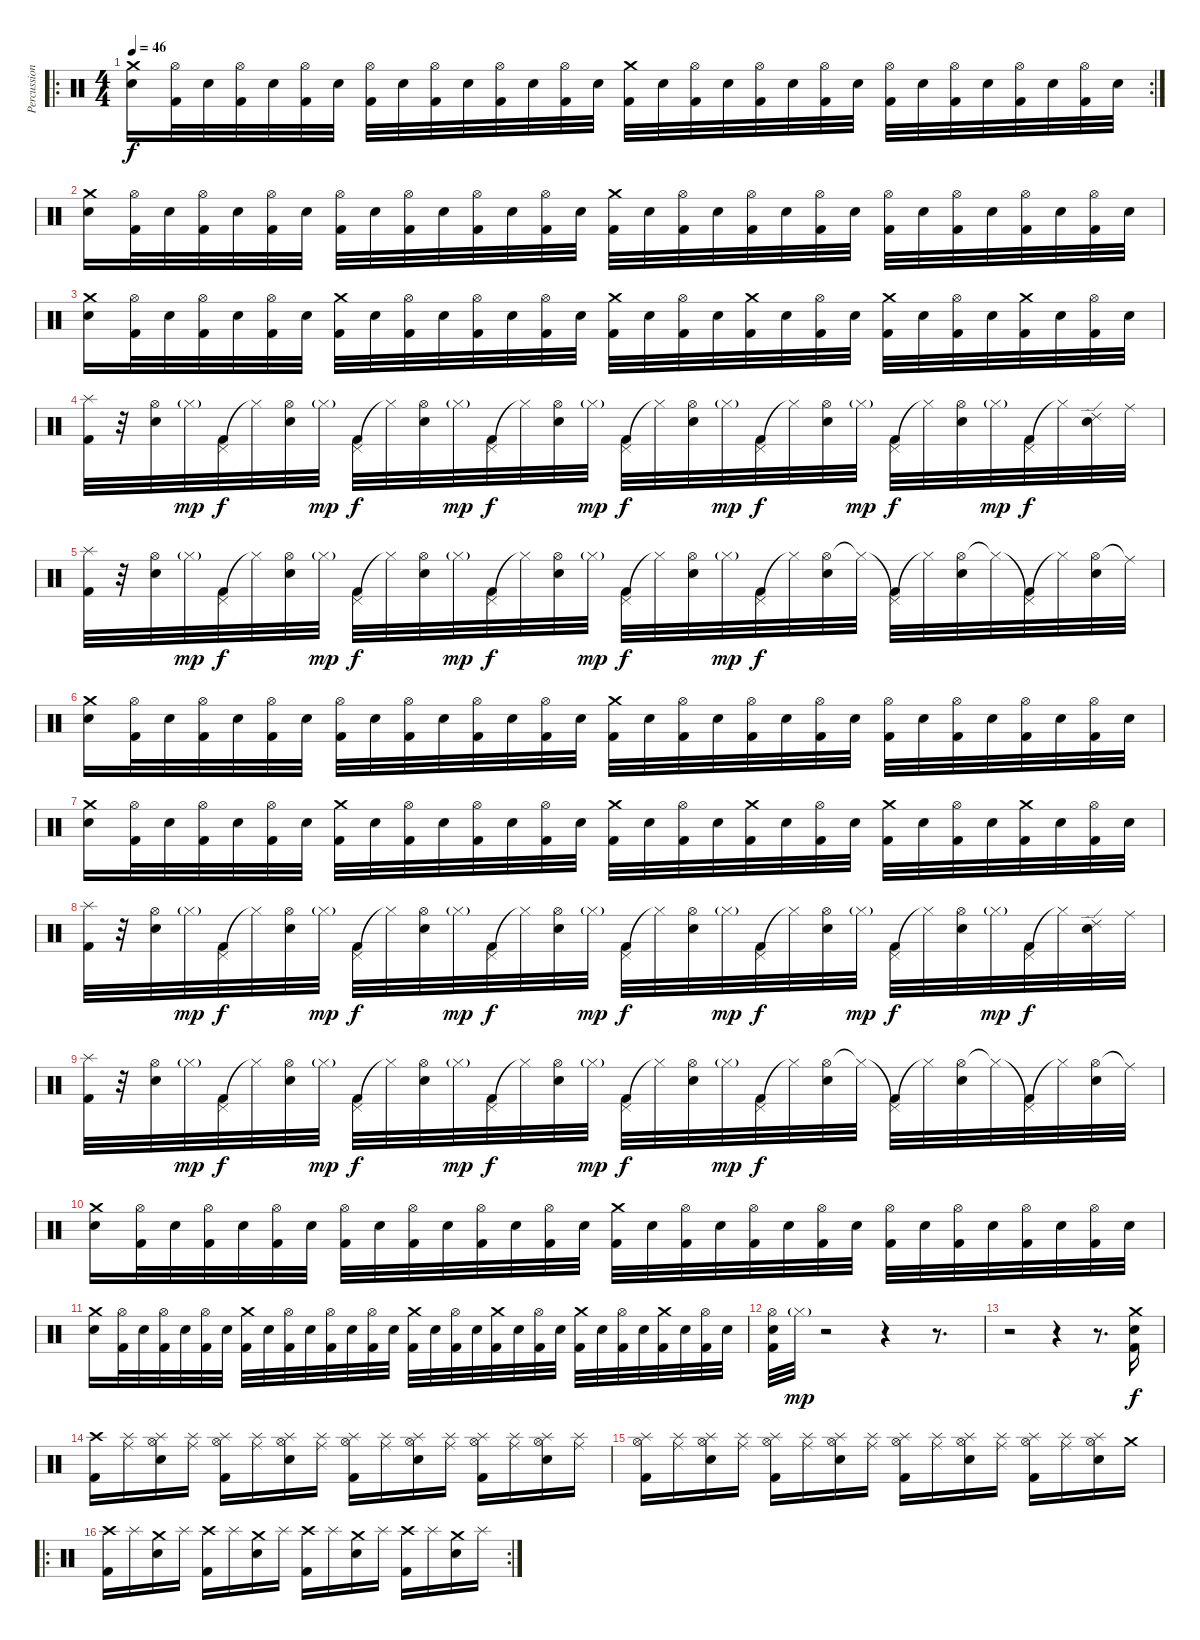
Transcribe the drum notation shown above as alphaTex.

\track ("Percussion" "Percussion") {instrument percussion}
\staff {score}
\articulation defaults
\ro
\rc 2
\ts (4 4)
\tempo 46
\clef neutral
\ks c
("Crash medium (hit)" "Electric Snare (hit)").16{dy f} ("Hi-Hat (open)" "Kick (hit) 2").32 "Electric Snare (hit)".32 ("Hi-Hat (open)" "Kick (hit) 2").32 "Electric Snare (hit)".32 ("Hi-Hat (open)" "Kick (hit) 2").32 "Electric Snare (hit)".32 ("Hi-Hat (open)" "Kick (hit) 2").32 "Electric Snare (hit)".32 ("Hi-Hat (open)" "Kick (hit) 2").32 "Electric Snare (hit)".32 ("Hi-Hat (open)" "Kick (hit) 2").32 "Electric Snare (hit)".32 ("Hi-Hat (open)" "Kick (hit) 2").32 "Electric Snare (hit)".32 ("Crash medium (hit)" "Kick (hit) 2").32 "Electric Snare (hit)".32 ("Hi-Hat (open)" "Kick (hit) 2").32 "Electric Snare (hit)".32 ("Hi-Hat (open)" "Kick (hit) 2").32 "Electric Snare (hit)".32 ("Hi-Hat (open)" "Kick (hit) 2").32 "Electric Snare (hit)".32 ("Hi-Hat (open)" "Kick (hit) 2").32 "Electric Snare (hit)".32 ("Hi-Hat (open)" "Kick (hit) 2").32 "Electric Snare (hit)".32 ("Hi-Hat (open)" "Kick (hit) 2").32 "Electric Snare (hit)".32 ("Hi-Hat (open)" "Kick (hit) 2").32 "Electric Snare (hit)".32 |
("Crash medium (hit)" "Electric Snare (hit)").16 ("Hi-Hat (open)" "Kick (hit) 2").32 "Electric Snare (hit)".32 ("Hi-Hat (open)" "Kick (hit) 2").32 "Electric Snare (hit)".32 ("Hi-Hat (open)" "Kick (hit) 2").32 "Electric Snare (hit)".32 ("Hi-Hat (open)" "Kick (hit) 2").32 "Electric Snare (hit)".32 ("Hi-Hat (open)" "Kick (hit) 2").32 "Electric Snare (hit)".32 ("Hi-Hat (open)" "Kick (hit) 2").32 "Electric Snare (hit)".32 ("Hi-Hat (open)" "Kick (hit) 2").32 "Electric Snare (hit)".32 ("Crash medium (hit)" "Kick (hit) 2").32 "Electric Snare (hit)".32 ("Hi-Hat (open)" "Kick (hit) 2").32 "Electric Snare (hit)".32 ("Hi-Hat (open)" "Kick (hit) 2").32 "Electric Snare (hit)".32 ("Hi-Hat (open)" "Kick (hit) 2").32 "Electric Snare (hit)".32 ("Hi-Hat (open)" "Kick (hit) 2").32 "Electric Snare (hit)".32 ("Hi-Hat (open)" "Kick (hit) 2").32 "Electric Snare (hit)".32 ("Hi-Hat (open)" "Kick (hit) 2").32 "Electric Snare (hit)".32 ("Hi-Hat (open)" "Kick (hit) 2").32 "Electric Snare (hit)".32 |
("Crash medium (hit)" "Electric Snare (hit)").16 ("Hi-Hat (open)" "Kick (hit) 2").32 "Electric Snare (hit)".32 ("Hi-Hat (open)" "Kick (hit) 2").32 "Electric Snare (hit)".32 ("Hi-Hat (open)" "Kick (hit) 2").32 "Electric Snare (hit)".32 ("Crash medium (hit)" "Kick (hit) 2").32 "Electric Snare (hit)".32 ("Hi-Hat (open)" "Kick (hit) 2").32 "Electric Snare (hit)".32 ("Hi-Hat (open)" "Kick (hit) 2").32 "Electric Snare (hit)".32 ("Hi-Hat (open)" "Kick (hit) 2").32 "Electric Snare (hit)".32 ("Crash medium (hit)" "Kick (hit) 2").32 "Electric Snare (hit)".32 ("Hi-Hat (open)" "Kick (hit) 2").32 "Electric Snare (hit)".32 ("Crash medium (hit)" "Kick (hit) 2").32 "Electric Snare (hit)".32 ("Hi-Hat (open)" "Kick (hit) 2").32 "Electric Snare (hit)".32 ("Crash medium (hit)" "Kick (hit) 2").32 "Electric Snare (hit)".32 ("Hi-Hat (open)" "Kick (hit) 2").32 "Electric Snare (hit)".32 ("Crash medium (hit)" "Kick (hit) 2").32 "Electric Snare (hit)".32 ("Hi-Hat (open)" "Kick (hit) 2").32 "Electric Snare (hit)".32 |
("Splash (hit)" "Kick (hit) 2").32 r.32 ("Hi-Hat (open)" "Electric Snare (hit)").32 "Hi-Hat (closed)"{g}.32{dy mp} ("Pedal Hi-Hat (hit)" "Kick (hit) 2").32{dy f} "Hi-Hat (closed)"{t}.32 ("Hi-Hat (open)" "Electric Snare (hit)").32 "Hi-Hat (closed)"{g}.32{dy mp} ("Pedal Hi-Hat (hit)" "Kick (hit) 2").32{dy f} "Hi-Hat (closed)"{t}.32 ("Hi-Hat (open)" "Electric Snare (hit)").32 "Hi-Hat (closed)"{g}.32{dy mp} ("Pedal Hi-Hat (hit)" "Kick (hit) 2").32{dy f} "Hi-Hat (closed)"{t}.32 ("Hi-Hat (open)" "Electric Snare (hit)").32 "Hi-Hat (closed)"{g}.32{dy mp} ("Pedal Hi-Hat (hit)" "Kick (hit) 2").32{dy f} "Hi-Hat (closed)"{t}.32 ("Hi-Hat (open)" "Electric Snare (hit)").32 "Hi-Hat (closed)"{g}.32{dy mp} ("Pedal Hi-Hat (hit)" "Kick (hit) 2").32{dy f} "Hi-Hat (closed)"{t}.32 ("Hi-Hat (open)" "Electric Snare (hit)").32 "Hi-Hat (closed)"{g}.32{dy mp} ("Pedal Hi-Hat (hit)" "Kick (hit) 2").32{dy f} "Hi-Hat (closed)"{t}.32 ("Hi-Hat (open)" "Electric Snare (hit)").32 "Hi-Hat (closed)"{g}.32{dy mp} ("Pedal Hi-Hat (hit)" "Kick (hit) 2").32{dy f} "Hi-Hat (closed)"{t}.32 ("Ride (edge) 2" "Electric Snare (hit)").32 "Ride (middle)".32 |
("Splash (hit)" "Kick (hit) 2").32 r.32 ("Hi-Hat (open)" "Electric Snare (hit)").32 "Hi-Hat (closed)"{g}.32{dy mp} ("Pedal Hi-Hat (hit)" "Kick (hit) 2").32{dy f} "Hi-Hat (closed)"{t}.32 ("Hi-Hat (open)" "Electric Snare (hit)").32 "Hi-Hat (closed)"{g}.32{dy mp} ("Pedal Hi-Hat (hit)" "Kick (hit) 2").32{dy f} "Hi-Hat (closed)"{t}.32 ("Hi-Hat (open)" "Electric Snare (hit)").32 "Hi-Hat (closed)"{g}.32{dy mp} ("Pedal Hi-Hat (hit)" "Kick (hit) 2").32{dy f} "Hi-Hat (closed)"{t}.32 ("Hi-Hat (open)" "Electric Snare (hit)").32 "Hi-Hat (closed)"{g}.32{dy mp} ("Pedal Hi-Hat (hit)" "Kick (hit) 2").32{dy f} "Hi-Hat (closed)"{t}.32 ("Hi-Hat (open)" "Electric Snare (hit)").32 "Hi-Hat (closed)"{g}.32{dy mp} ("Pedal Hi-Hat (hit)" "Kick (hit) 2").32{dy f} "Hi-Hat (closed)"{t}.32 ("Hi-Hat (open)" "Electric Snare (hit)").32 "Hi-Hat (closed)"{t}.32 ("Pedal Hi-Hat (hit)"{t} "Kick (hit) 2").32 "Hi-Hat (closed)"{t}.32 ("Hi-Hat (open)" "Electric Snare (hit)").32 "Hi-Hat (closed)"{t}.32 ("Pedal Hi-Hat (hit)"{t} "Kick (hit) 2").32 "Hi-Hat (closed)"{t}.32 ("Hi-Hat (open)" "Electric Snare (hit)").32 "Ride (middle)"{t}.32 |
("Crash medium (hit)" "Electric Snare (hit)").16 ("Hi-Hat (open)" "Kick (hit) 2").32 "Electric Snare (hit)".32 ("Hi-Hat (open)" "Kick (hit) 2").32 "Electric Snare (hit)".32 ("Hi-Hat (open)" "Kick (hit) 2").32 "Electric Snare (hit)".32 ("Hi-Hat (open)" "Kick (hit) 2").32 "Electric Snare (hit)".32 ("Hi-Hat (open)" "Kick (hit) 2").32 "Electric Snare (hit)".32 ("Hi-Hat (open)" "Kick (hit) 2").32 "Electric Snare (hit)".32 ("Hi-Hat (open)" "Kick (hit) 2").32 "Electric Snare (hit)".32 ("Crash medium (hit)" "Kick (hit) 2").32 "Electric Snare (hit)".32 ("Hi-Hat (open)" "Kick (hit) 2").32 "Electric Snare (hit)".32 ("Hi-Hat (open)" "Kick (hit) 2").32 "Electric Snare (hit)".32 ("Hi-Hat (open)" "Kick (hit) 2").32 "Electric Snare (hit)".32 ("Hi-Hat (open)" "Kick (hit) 2").32 "Electric Snare (hit)".32 ("Hi-Hat (open)" "Kick (hit) 2").32 "Electric Snare (hit)".32 ("Hi-Hat (open)" "Kick (hit) 2").32 "Electric Snare (hit)".32 ("Hi-Hat (open)" "Kick (hit) 2").32 "Electric Snare (hit)".32 |
("Crash medium (hit)" "Electric Snare (hit)").16 ("Hi-Hat (open)" "Kick (hit) 2").32 "Electric Snare (hit)".32 ("Hi-Hat (open)" "Kick (hit) 2").32 "Electric Snare (hit)".32 ("Hi-Hat (open)" "Kick (hit) 2").32 "Electric Snare (hit)".32 ("Crash medium (hit)" "Kick (hit) 2").32 "Electric Snare (hit)".32 ("Hi-Hat (open)" "Kick (hit) 2").32 "Electric Snare (hit)".32 ("Hi-Hat (open)" "Kick (hit) 2").32 "Electric Snare (hit)".32 ("Hi-Hat (open)" "Kick (hit) 2").32 "Electric Snare (hit)".32 ("Crash medium (hit)" "Kick (hit) 2").32 "Electric Snare (hit)".32 ("Hi-Hat (open)" "Kick (hit) 2").32 "Electric Snare (hit)".32 ("Crash medium (hit)" "Kick (hit) 2").32 "Electric Snare (hit)".32 ("Hi-Hat (open)" "Kick (hit) 2").32 "Electric Snare (hit)".32 ("Crash medium (hit)" "Kick (hit) 2").32 "Electric Snare (hit)".32 ("Hi-Hat (open)" "Kick (hit) 2").32 "Electric Snare (hit)".32 ("Crash medium (hit)" "Kick (hit) 2").32 "Electric Snare (hit)".32 ("Hi-Hat (open)" "Kick (hit) 2").32 "Electric Snare (hit)".32 |
("Splash (hit)" "Kick (hit) 2").32 r.32 ("Hi-Hat (open)" "Electric Snare (hit)").32 "Hi-Hat (closed)"{g}.32{dy mp} ("Pedal Hi-Hat (hit)" "Kick (hit) 2").32{dy f} "Hi-Hat (closed)"{t}.32 ("Hi-Hat (open)" "Electric Snare (hit)").32 "Hi-Hat (closed)"{g}.32{dy mp} ("Pedal Hi-Hat (hit)" "Kick (hit) 2").32{dy f} "Hi-Hat (closed)"{t}.32 ("Hi-Hat (open)" "Electric Snare (hit)").32 "Hi-Hat (closed)"{g}.32{dy mp} ("Pedal Hi-Hat (hit)" "Kick (hit) 2").32{dy f} "Hi-Hat (closed)"{t}.32 ("Hi-Hat (open)" "Electric Snare (hit)").32 "Hi-Hat (closed)"{g}.32{dy mp} ("Pedal Hi-Hat (hit)" "Kick (hit) 2").32{dy f} "Hi-Hat (closed)"{t}.32 ("Hi-Hat (open)" "Electric Snare (hit)").32 "Hi-Hat (closed)"{g}.32{dy mp} ("Pedal Hi-Hat (hit)" "Kick (hit) 2").32{dy f} "Hi-Hat (closed)"{t}.32 ("Hi-Hat (open)" "Electric Snare (hit)").32 "Hi-Hat (closed)"{g}.32{dy mp} ("Pedal Hi-Hat (hit)" "Kick (hit) 2").32{dy f} "Hi-Hat (closed)"{t}.32 ("Hi-Hat (open)" "Electric Snare (hit)").32 "Hi-Hat (closed)"{g}.32{dy mp} ("Pedal Hi-Hat (hit)" "Kick (hit) 2").32{dy f} "Hi-Hat (closed)"{t}.32 ("Ride (edge) 2" "Electric Snare (hit)").32 "Ride (middle)".32 |
("Splash (hit)" "Kick (hit) 2").32 r.32 ("Hi-Hat (open)" "Electric Snare (hit)").32 "Hi-Hat (closed)"{g}.32{dy mp} ("Pedal Hi-Hat (hit)" "Kick (hit) 2").32{dy f} "Hi-Hat (closed)"{t}.32 ("Hi-Hat (open)" "Electric Snare (hit)").32 "Hi-Hat (closed)"{g}.32{dy mp} ("Pedal Hi-Hat (hit)" "Kick (hit) 2").32{dy f} "Hi-Hat (closed)"{t}.32 ("Hi-Hat (open)" "Electric Snare (hit)").32 "Hi-Hat (closed)"{g}.32{dy mp} ("Pedal Hi-Hat (hit)" "Kick (hit) 2").32{dy f} "Hi-Hat (closed)"{t}.32 ("Hi-Hat (open)" "Electric Snare (hit)").32 "Hi-Hat (closed)"{g}.32{dy mp} ("Pedal Hi-Hat (hit)" "Kick (hit) 2").32{dy f} "Hi-Hat (closed)"{t}.32 ("Hi-Hat (open)" "Electric Snare (hit)").32 "Hi-Hat (closed)"{g}.32{dy mp} ("Pedal Hi-Hat (hit)" "Kick (hit) 2").32{dy f} "Hi-Hat (closed)"{t}.32 ("Hi-Hat (open)" "Electric Snare (hit)").32 "Hi-Hat (closed)"{t}.32 ("Pedal Hi-Hat (hit)"{t} "Kick (hit) 2").32 "Hi-Hat (closed)"{t}.32 ("Hi-Hat (open)" "Electric Snare (hit)").32 "Hi-Hat (closed)"{t}.32 ("Pedal Hi-Hat (hit)"{t} "Kick (hit) 2").32 "Hi-Hat (closed)"{t}.32 ("Hi-Hat (open)" "Electric Snare (hit)").32 "Ride (middle)"{t}.32 |
("Crash medium (hit)" "Electric Snare (hit)").16 ("Hi-Hat (open)" "Kick (hit) 2").32 "Electric Snare (hit)".32 ("Hi-Hat (open)" "Kick (hit) 2").32 "Electric Snare (hit)".32 ("Hi-Hat (open)" "Kick (hit) 2").32 "Electric Snare (hit)".32 ("Hi-Hat (open)" "Kick (hit) 2").32 "Electric Snare (hit)".32 ("Hi-Hat (open)" "Kick (hit) 2").32 "Electric Snare (hit)".32 ("Hi-Hat (open)" "Kick (hit) 2").32 "Electric Snare (hit)".32 ("Hi-Hat (open)" "Kick (hit) 2").32 "Electric Snare (hit)".32 ("Crash medium (hit)" "Kick (hit) 2").32 "Electric Snare (hit)".32 ("Hi-Hat (open)" "Kick (hit) 2").32 "Electric Snare (hit)".32 ("Hi-Hat (open)" "Kick (hit) 2").32 "Electric Snare (hit)".32 ("Hi-Hat (open)" "Kick (hit) 2").32 "Electric Snare (hit)".32 ("Hi-Hat (open)" "Kick (hit) 2").32 "Electric Snare (hit)".32 ("Hi-Hat (open)" "Kick (hit) 2").32 "Electric Snare (hit)".32 ("Hi-Hat (open)" "Kick (hit) 2").32 "Electric Snare (hit)".32 ("Hi-Hat (open)" "Kick (hit) 2").32 "Electric Snare (hit)".32 |
("Crash medium (hit)" "Electric Snare (hit)").16 ("Hi-Hat (open)" "Kick (hit) 2").32 "Electric Snare (hit)".32 ("Hi-Hat (open)" "Kick (hit) 2").32 "Electric Snare (hit)".32 ("Hi-Hat (open)" "Kick (hit) 2").32 "Electric Snare (hit)".32 ("Crash medium (hit)" "Kick (hit) 2").32 "Electric Snare (hit)".32 ("Hi-Hat (open)" "Kick (hit) 2").32 "Electric Snare (hit)".32 ("Hi-Hat (open)" "Kick (hit) 2").32 "Electric Snare (hit)".32 ("Hi-Hat (open)" "Kick (hit) 2").32 "Electric Snare (hit)".32 ("Crash medium (hit)" "Kick (hit) 2").32 "Electric Snare (hit)".32 ("Hi-Hat (open)" "Kick (hit) 2").32 "Electric Snare (hit)".32 ("Crash medium (hit)" "Kick (hit) 2").32 "Electric Snare (hit)".32 ("Hi-Hat (open)" "Kick (hit) 2").32 "Electric Snare (hit)".32 ("Crash medium (hit)" "Kick (hit) 2").32 "Electric Snare (hit)".32 ("Hi-Hat (open)" "Kick (hit) 2").32 "Electric Snare (hit)".32 ("Crash medium (hit)" "Kick (hit) 2").32 "Electric Snare (hit)".32 ("Hi-Hat (open)" "Kick (hit) 2").32 "Electric Snare (hit)".32 |
("Hi-Hat (open)" "Electric Snare (hit)" "Kick (hit) 2").32 "Hi-Hat (closed)"{g}.32{dy mp} r.2 r.4 r.8{d} |
r.2 r.4 r.8{d} ("Crash medium (hit)" "Electric Snare (hit)" "Kick (hit) 2").16{dy f} |
("Crash high (hit)" "Kick (hit) 2").16 ("Splash (hit)" "Ride (middle)").16 ("Splash (hit)" "Hi-Hat (open)" "Electric Snare (hit)").16 ("Splash (hit)" "Ride (middle)").16 ("Splash (hit)" "Hi-Hat (open)" "Kick (hit) 2").16 ("Splash (hit)" "Ride (middle)").16 ("Splash (hit)" "Hi-Hat (open)" "Electric Snare (hit)").16 ("Splash (hit)" "Ride (middle)").16 ("Splash (hit)" "Hi-Hat (open)" "Kick (hit) 2").16 ("Splash (hit)" "Ride (middle)").16 ("Splash (hit)" "Hi-Hat (open)" "Electric Snare (hit)").16 ("Splash (hit)" "Ride (middle)").16 ("Splash (hit)" "Hi-Hat (open)" "Kick (hit) 2").16 ("Splash (hit)" "Ride (middle)").16 ("Splash (hit)" "Hi-Hat (open)" "Electric Snare (hit)").16 ("Splash (hit)" "Ride (middle)").16 |
("Splash (hit)" "Hi-Hat (open)" "Kick (hit) 2").16 ("Splash (hit)" "Ride (middle)").16 ("Splash (hit)" "Hi-Hat (open)" "Electric Snare (hit)").16 ("Splash (hit)" "Ride (middle)").16 ("Splash (hit)" "Hi-Hat (open)" "Kick (hit) 2").16 ("Splash (hit)" "Ride (middle)").16 ("Splash (hit)" "Hi-Hat (open)" "Electric Snare (hit)").16 ("Splash (hit)" "Ride (middle)").16 ("Splash (hit)" "Hi-Hat (open)" "Kick (hit) 2").16 ("Splash (hit)" "Ride (middle)").16 ("Splash (hit)" "Hi-Hat (open)" "Electric Snare (hit)").16 ("Splash (hit)" "Ride (middle)").16 ("Splash (hit)" "Hi-Hat (open)" "Kick (hit) 2").16 ("Splash (hit)" "Ride (middle)").16 ("Splash (hit)" "Hi-Hat (open)" "Electric Snare (hit)").16 "Crash medium (hit)".16 |
\ro
\rc 2
("Crash high (hit)" "Kick (hit) 2").16 "Splash (hit)".16 ("Crash medium (hit)" "Electric Snare (hit)").16 "Splash (hit)".16 ("Crash high (hit)" "Kick (hit) 2").16 "Splash (hit)".16 ("Crash medium (hit)" "Electric Snare (hit)").16 "Splash (hit)".16 ("Crash high (hit)" "Kick (hit) 2").16 "Splash (hit)".16 ("Crash medium (hit)" "Electric Snare (hit)").16 "Splash (hit)".16 ("Crash high (hit)" "Kick (hit) 2").16 "Splash (hit)".16 ("Crash medium (hit)" "Electric Snare (hit)").16 "Splash (hit)".16
